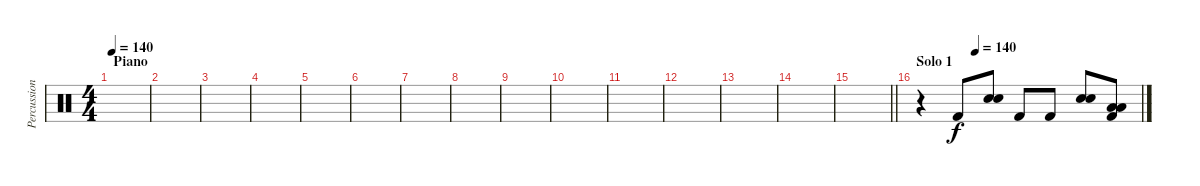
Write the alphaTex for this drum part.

\track ("Percussions" "Percussion") {instrument percussion}
\staff {score}
\articulation defaults
\ts (4 4)
\section ("" "Piano")
\tempo 140
\tempo 130
\tempo 140
\clef neutral
\ks c
|
|
|
|
|
|
|
|
|
|
|
|
|
|
\barLineRight lightlight
|
\section ("" "Solo 1")
\tempo (140 0.25)
r.4 "Kick (hit) 2".8 ("Electric Snare (hit)" "Electric Snare (hit)").8 "Kick (hit) 2".8 "Kick (hit) 2".8 ("Electric Snare (hit)" "Electric Snare (hit)").8 ("Low Tom (hit)" "Low Tom (hit)" "Kick (hit) 2").8
